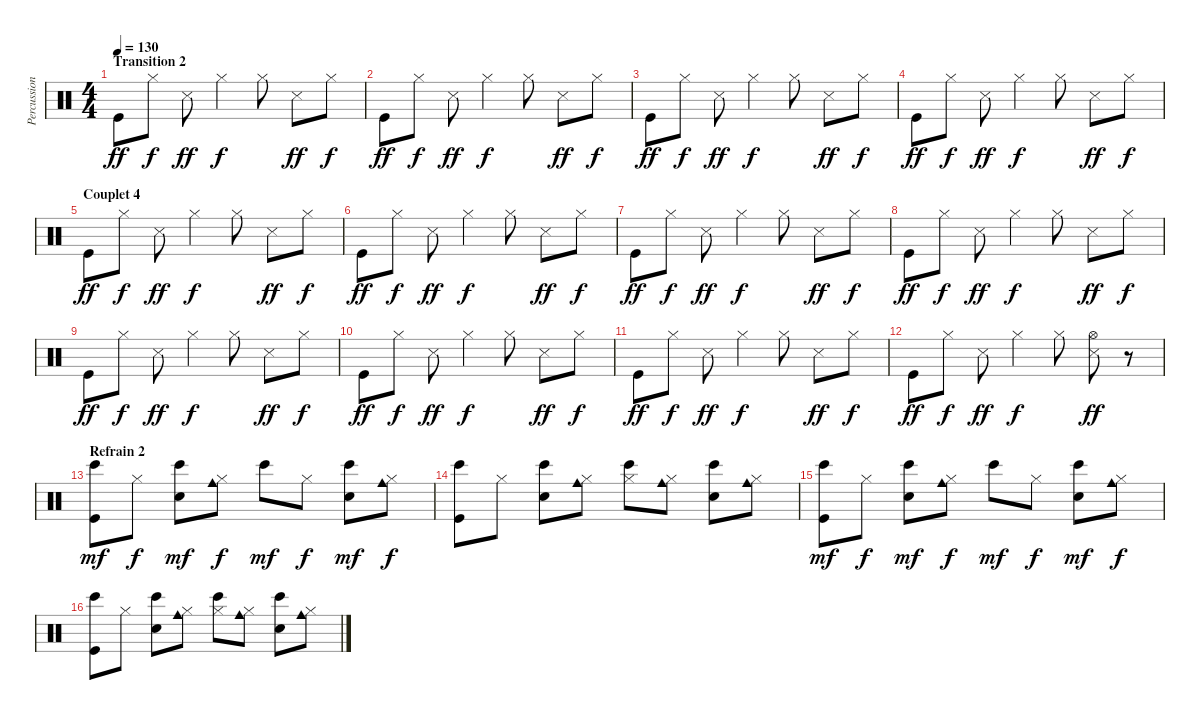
\track ("Percussions" "Percussion") {instrument percussion}
\staff {score}
\articulation defaults
\ts (4 4)
\section ("" "Transition 2")
\tempo 130
\clef neutral
\ks c "Kick (hit)".8{dy ff} "Hi-Hat (closed)".8{dy f} "Snare (side stick) 3".8{dy ff} "Hi-Hat (closed)".4{dy f} "Hi-Hat (closed)".8 "Snare (side stick) 3".8{dy ff} "Hi-Hat (closed)".8{dy f}
|
"Kick (hit)".8{dy ff} "Hi-Hat (closed)".8{dy f} "Snare (side stick) 3".8{dy ff} "Hi-Hat (closed)".4{dy f} "Hi-Hat (closed)".8 "Snare (side stick) 3".8{dy ff} "Hi-Hat (closed)".8{dy f} |
"Kick (hit)".8{dy ff} "Hi-Hat (closed)".8{dy f} "Snare (side stick) 3".8{dy ff} "Hi-Hat (closed)".4{dy f} "Hi-Hat (closed)".8 "Snare (side stick) 3".8{dy ff} "Hi-Hat (closed)".8{dy f} |
"Kick (hit)".8{dy ff} "Hi-Hat (closed)".8{dy f} "Snare (side stick) 3".8{dy ff} "Hi-Hat (closed)".4{dy f} "Hi-Hat (closed)".8 "Snare (side stick) 3".8{dy ff} "Hi-Hat (closed)".8{dy f} |
\section ("" "Couplet 4")
"Kick (hit)".8{dy ff} "Hi-Hat (closed)".8{dy f} "Snare (side stick) 3".8{dy ff} "Hi-Hat (closed)".4{dy f} "Hi-Hat (closed)".8 "Snare (side stick) 3".8{dy ff} "Hi-Hat (closed)".8{dy f} |
"Kick (hit)".8{dy ff} "Hi-Hat (closed)".8{dy f} "Snare (side stick) 3".8{dy ff} "Hi-Hat (closed)".4{dy f} "Hi-Hat (closed)".8 "Snare (side stick) 3".8{dy ff} "Hi-Hat (closed)".8{dy f} |
"Kick (hit)".8{dy ff} "Hi-Hat (closed)".8{dy f} "Snare (side stick) 3".8{dy ff} "Hi-Hat (closed)".4{dy f} "Hi-Hat (closed)".8 "Snare (side stick) 3".8{dy ff} "Hi-Hat (closed)".8{dy f} |
"Kick (hit)".8{dy ff} "Hi-Hat (closed)".8{dy f} "Snare (side stick) 3".8{dy ff} "Hi-Hat (closed)".4{dy f} "Hi-Hat (closed)".8 "Snare (side stick) 3".8{dy ff} "Hi-Hat (closed)".8{dy f} |
"Kick (hit)".8{dy ff} "Hi-Hat (closed)".8{dy f} "Snare (side stick) 3".8{dy ff} "Hi-Hat (closed)".4{dy f} "Hi-Hat (closed)".8 "Snare (side stick) 3".8{dy ff} "Hi-Hat (closed)".8{dy f} |
"Kick (hit)".8{dy ff} "Hi-Hat (closed)".8{dy f} "Snare (side stick) 3".8{dy ff} "Hi-Hat (closed)".4{dy f} "Hi-Hat (closed)".8 "Snare (side stick) 3".8{dy ff} "Hi-Hat (closed)".8{dy f} |
"Kick (hit)".8{dy ff} "Hi-Hat (closed)".8{dy f} "Snare (side stick) 3".8{dy ff} "Hi-Hat (closed)".4{dy f} "Hi-Hat (closed)".8 "Snare (side stick) 3".8{dy ff} "Hi-Hat (closed)".8{dy f} |
"Kick (hit)".8{dy ff} "Hi-Hat (closed)".8{dy f} "Snare (side stick) 3".8{dy ff} "Hi-Hat (closed)".4{dy f} "Hi-Hat (closed)".8 ("Hi-Hat (open)" "Snare (side stick) 3").8{dy ff} r.8 |
\section ("" "Refrain 2")
("Bongo High (hit)" "Kick (hit)").8{dy mf} "Hi-Hat (closed)".8{dy f} ("Bongo High (hit)" "Electric Snare (hit)").8{dy mf} ("Hi-Hat (closed)" "Cowbell medium (hit)").8{dy f} "Bongo High (hit)".8{dy mf} "Hi-Hat (closed)".8{dy f} ("Bongo High (hit)" "Electric Snare (hit)").8{dy mf} ("Hi-Hat (closed)" "Cowbell medium (hit)").8{dy f} |
("Bongo High (hit)" "Kick (hit)").8 "Hi-Hat (closed)".8 ("Bongo High (hit)" "Electric Snare (hit)").8 ("Hi-Hat (closed)" "Cowbell medium (hit)").8 ("Hi-Hat (closed)" "Bongo High (hit)").8 ("Hi-Hat (closed)" "Cowbell medium (hit)").8 ("Bongo High (hit)" "Electric Snare (hit)").8 ("Hi-Hat (closed)" "Cowbell medium (hit)").8 |
("Bongo High (hit)" "Kick (hit)").8{dy mf} "Hi-Hat (closed)".8{dy f} ("Bongo High (hit)" "Electric Snare (hit)").8{dy mf} ("Hi-Hat (closed)" "Cowbell medium (hit)").8{dy f} "Bongo High (hit)".8{dy mf} "Hi-Hat (closed)".8{dy f} ("Bongo High (hit)" "Electric Snare (hit)").8{dy mf} ("Hi-Hat (closed)" "Cowbell medium (hit)").8{dy f} |
("Bongo High (hit)" "Kick (hit)").8 "Hi-Hat (closed)".8 ("Bongo High (hit)" "Electric Snare (hit)").8 ("Hi-Hat (closed)" "Cowbell medium (hit)").8 ("Hi-Hat (closed)" "Bongo High (hit)").8 ("Hi-Hat (closed)" "Cowbell medium (hit)").8 ("Bongo High (hit)" "Electric Snare (hit)").8 ("Hi-Hat (closed)" "Cowbell medium (hit)").8
